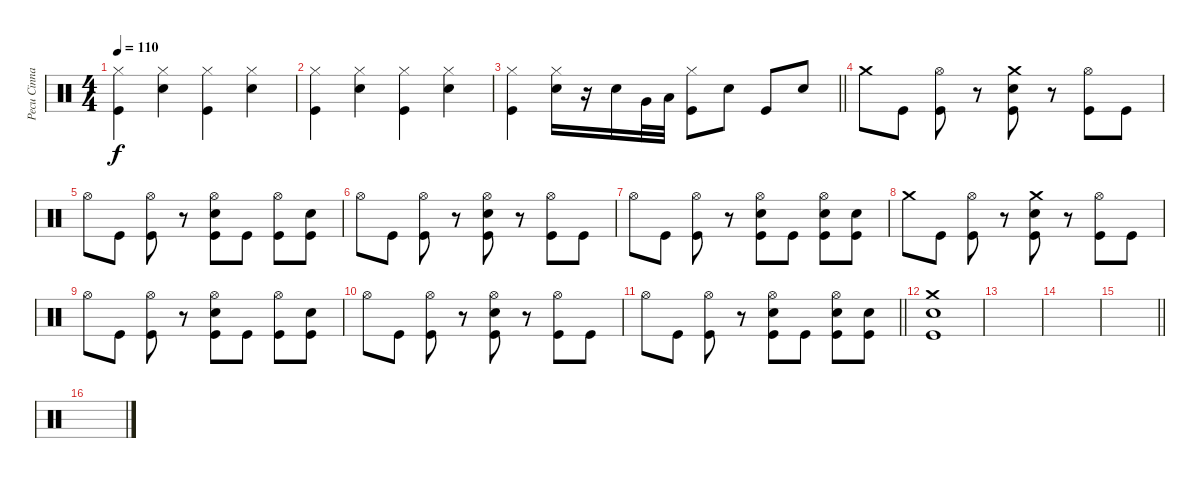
\track ("Pecu Cinnari" "Pecu Cinna") {instrument percussion}
\staff {score}
\articulation defaults
\ts (4 4)
\tempo 110
\clef neutral
\ks c
("Hi-Hat (closed)" "Kick (hit)").4{dy f} ("Hi-Hat (closed)" "Snare (hit) 2").4 ("Hi-Hat (closed)" "Kick (hit)").4 ("Hi-Hat (closed)" "Snare (hit) 2").4 |
("Hi-Hat (closed)" "Kick (hit)").4 ("Hi-Hat (closed)" "Snare (hit) 2").4 ("Hi-Hat (closed)" "Kick (hit)").4 ("Hi-Hat (closed)" "Snare (hit) 2").4 |
\barLineRight lightlight
("Hi-Hat (closed)" "Kick (hit)").4 ("Hi-Hat (closed)" "Snare (hit) 2").16 r.16 "Snare (hit) 2".16 "Very Low Tom (hit)".32 "Low Floor Tom (hit)".32 ("Hi-Hat (closed)" "Kick (hit)").8 "Snare (hit) 2".8 "Kick (hit)".8 "Snare (hit) 2".8 |
\section ("" "")
"Crash medium (hit)".8 "Kick (hit)".8 ("Hi-Hat (open)" "Kick (hit)").8 r.8 ("Crash medium (hit)" "Snare (hit) 2" "Kick (hit)").8 r.8 ("Hi-Hat (open)" "Kick (hit)").8 "Kick (hit)".8 |
"Hi-Hat (open)".8 "Kick (hit)".8 ("Hi-Hat (open)" "Kick (hit)").8 r.8 ("Hi-Hat (open)" "Snare (hit) 2" "Kick (hit)").8 "Kick (hit)".8 ("Hi-Hat (open)" "Kick (hit)").8 ("Snare (hit) 2" "Kick (hit)").8 |
"Hi-Hat (open)".8 "Kick (hit)".8 ("Hi-Hat (open)" "Kick (hit)").8 r.8 ("Hi-Hat (open)" "Snare (hit) 2" "Kick (hit)").8 r.8 ("Hi-Hat (open)" "Kick (hit)").8 "Kick (hit)".8 |
"Hi-Hat (open)".8 "Kick (hit)".8 ("Hi-Hat (open)" "Kick (hit)").8 r.8 ("Hi-Hat (open)" "Snare (hit) 2" "Kick (hit)").8 "Kick (hit)".8 ("Hi-Hat (open)" "Snare (hit) 2" "Kick (hit)").8 ("Snare (hit) 2" "Kick (hit)").8 |
"Crash medium (hit)".8 "Kick (hit)".8 ("Hi-Hat (open)" "Kick (hit)").8 r.8 ("Crash medium (hit)" "Snare (hit) 2" "Kick (hit)").8 r.8 ("Hi-Hat (open)" "Kick (hit)").8 "Kick (hit)".8 |
"Hi-Hat (open)".8 "Kick (hit)".8 ("Hi-Hat (open)" "Kick (hit)").8 r.8 ("Hi-Hat (open)" "Snare (hit) 2" "Kick (hit)").8 "Kick (hit)".8 ("Hi-Hat (open)" "Kick (hit)").8 ("Snare (hit) 2" "Kick (hit)").8 |
"Hi-Hat (open)".8 "Kick (hit)".8 ("Hi-Hat (open)" "Kick (hit)").8 r.8 ("Hi-Hat (open)" "Snare (hit) 2" "Kick (hit)").8 r.8 ("Hi-Hat (open)" "Kick (hit)").8 "Kick (hit)".8 |
\barLineRight lightlight "Hi-Hat (open)".8 "Kick (hit)".8
("Hi-Hat (open)" "Kick (hit)").8 r.8 ("Hi-Hat (open)" "Snare (hit) 2" "Kick (hit)").8 "Kick (hit)".8 ("Hi-Hat (open)" "Snare (hit) 2" "Kick (hit)").8 ("Snare (hit) 2" "Kick (hit)").8 |
\section ("" "")
("Crash medium (hit)" "Snare (hit) 2" "Kick (hit)").1 |
|
|
\barLineRight lightlight
|
\section ("" "")
